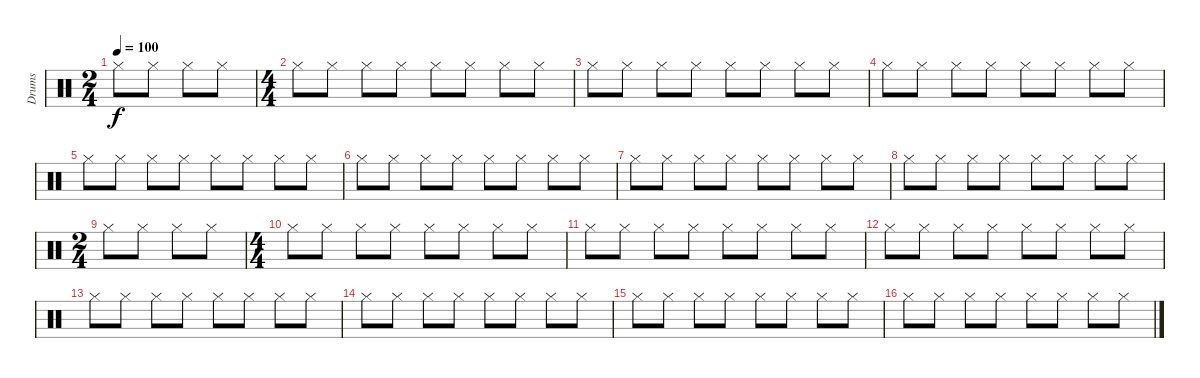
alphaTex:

\track ("Drums" "Drums") {instrument percussion}
\staff {score}
\articulation defaults
\ts (2 4)
\tempo 100
\tempo 90
\tempo 100
\clef neutral
\ks c "Hi-Hat (closed)".8{dy f} "Hi-Hat (closed)".8 "Hi-Hat (closed)".8 "Hi-Hat (closed)".8
|
\ts (4 4)
"Hi-Hat (closed)".8 "Hi-Hat (closed)".8 "Hi-Hat (closed)".8 "Hi-Hat (closed)".8 "Hi-Hat (closed)".8 "Hi-Hat (closed)".8 "Hi-Hat (closed)".8 "Hi-Hat (closed)".8 |
"Hi-Hat (closed)".8 "Hi-Hat (closed)".8 "Hi-Hat (closed)".8 "Hi-Hat (closed)".8 "Hi-Hat (closed)".8 "Hi-Hat (closed)".8 "Hi-Hat (closed)".8 "Hi-Hat (closed)".8 |
"Hi-Hat (closed)".8 "Hi-Hat (closed)".8 "Hi-Hat (closed)".8 "Hi-Hat (closed)".8 "Hi-Hat (closed)".8 "Hi-Hat (closed)".8 "Hi-Hat (closed)".8 "Hi-Hat (closed)".8 |
"Hi-Hat (closed)".8 "Hi-Hat (closed)".8 "Hi-Hat (closed)".8 "Hi-Hat (closed)".8 "Hi-Hat (closed)".8 "Hi-Hat (closed)".8 "Hi-Hat (closed)".8 "Hi-Hat (closed)".8 |
"Hi-Hat (closed)".8 "Hi-Hat (closed)".8 "Hi-Hat (closed)".8 "Hi-Hat (closed)".8 "Hi-Hat (closed)".8 "Hi-Hat (closed)".8 "Hi-Hat (closed)".8 "Hi-Hat (closed)".8 |
"Hi-Hat (closed)".8 "Hi-Hat (closed)".8 "Hi-Hat (closed)".8 "Hi-Hat (closed)".8 "Hi-Hat (closed)".8 "Hi-Hat (closed)".8 "Hi-Hat (closed)".8 "Hi-Hat (closed)".8 |
"Hi-Hat (closed)".8 "Hi-Hat (closed)".8 "Hi-Hat (closed)".8 "Hi-Hat (closed)".8 "Hi-Hat (closed)".8 "Hi-Hat (closed)".8 "Hi-Hat (closed)".8 "Hi-Hat (closed)".8 |
\ts (2 4)
"Hi-Hat (closed)".8 "Hi-Hat (closed)".8 "Hi-Hat (closed)".8 "Hi-Hat (closed)".8 |
\ts (4 4)
"Hi-Hat (closed)".8 "Hi-Hat (closed)".8 "Hi-Hat (closed)".8 "Hi-Hat (closed)".8 "Hi-Hat (closed)".8 "Hi-Hat (closed)".8 "Hi-Hat (closed)".8 "Hi-Hat (closed)".8 |
"Hi-Hat (closed)".8 "Hi-Hat (closed)".8 "Hi-Hat (closed)".8 "Hi-Hat (closed)".8 "Hi-Hat (closed)".8 "Hi-Hat (closed)".8 "Hi-Hat (closed)".8 "Hi-Hat (closed)".8 |
"Hi-Hat (closed)".8 "Hi-Hat (closed)".8 "Hi-Hat (closed)".8 "Hi-Hat (closed)".8 "Hi-Hat (closed)".8 "Hi-Hat (closed)".8 "Hi-Hat (closed)".8 "Hi-Hat (closed)".8 |
"Hi-Hat (closed)".8 "Hi-Hat (closed)".8 "Hi-Hat (closed)".8 "Hi-Hat (closed)".8 "Hi-Hat (closed)".8 "Hi-Hat (closed)".8 "Hi-Hat (closed)".8 "Hi-Hat (closed)".8 |
"Hi-Hat (closed)".8 "Hi-Hat (closed)".8 "Hi-Hat (closed)".8 "Hi-Hat (closed)".8 "Hi-Hat (closed)".8 "Hi-Hat (closed)".8 "Hi-Hat (closed)".8 "Hi-Hat (closed)".8 |
"Hi-Hat (closed)".8 "Hi-Hat (closed)".8 "Hi-Hat (closed)".8 "Hi-Hat (closed)".8 "Hi-Hat (closed)".8 "Hi-Hat (closed)".8 "Hi-Hat (closed)".8 "Hi-Hat (closed)".8 |
"Hi-Hat (closed)".8 "Hi-Hat (closed)".8 "Hi-Hat (closed)".8 "Hi-Hat (closed)".8 "Hi-Hat (closed)".8 "Hi-Hat (closed)".8 "Hi-Hat (closed)".8 "Hi-Hat (closed)".8
